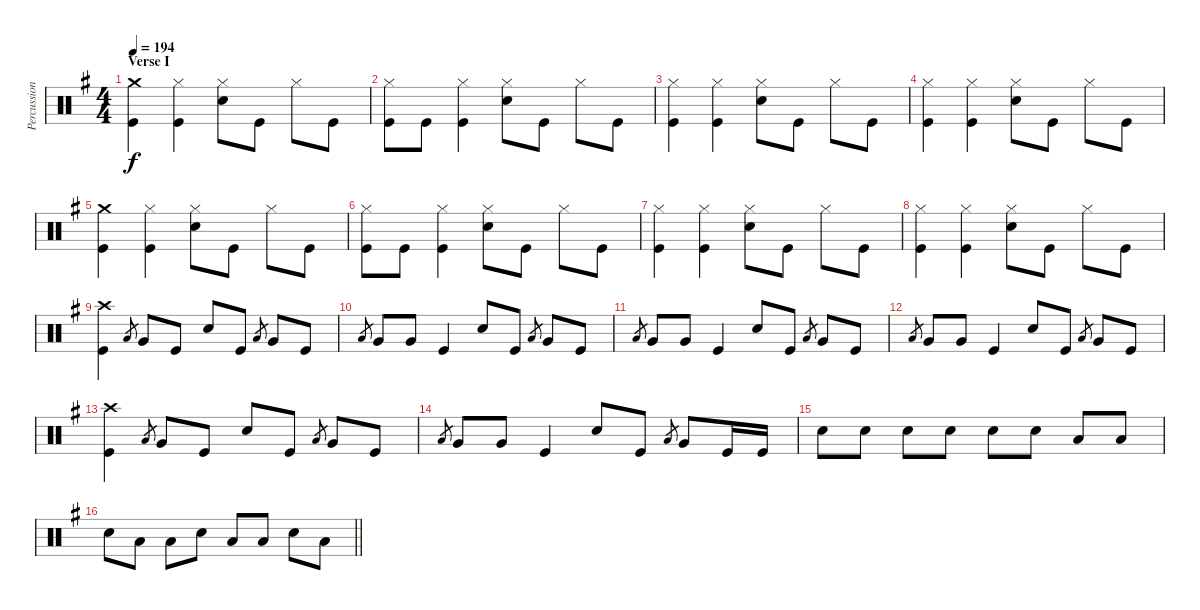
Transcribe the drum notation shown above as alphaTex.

\track ("Percussion" "Percussion") {instrument percussion}
\staff {score}
\articulation defaults
\ts (4 4)
\section ("" "Verse I")
\tempo 194
\clef neutral
\ks g
("Crash medium (hit)" "Kick (hit)").4{dy f} ("Hi-Hat (closed)" "Kick (hit)").4 ("Hi-Hat (closed)" "Electric Snare (hit)").8 "Kick (hit)".8 "Hi-Hat (closed)".8 "Kick (hit)".8 |
("Hi-Hat (closed)" "Kick (hit)").8 "Kick (hit)".8 ("Hi-Hat (closed)" "Kick (hit)").4 ("Hi-Hat (closed)" "Electric Snare (hit)").8 "Kick (hit)".8 "Hi-Hat (closed)".8 "Kick (hit)".8 |
("Hi-Hat (closed)" "Kick (hit)").4 ("Hi-Hat (closed)" "Kick (hit)").4 ("Hi-Hat (closed)" "Electric Snare (hit)").8 "Kick (hit)".8 "Hi-Hat (closed)".8 "Kick (hit)".8 |
("Hi-Hat (closed)" "Kick (hit)").4 ("Hi-Hat (closed)" "Kick (hit)").4 ("Hi-Hat (closed)" "Electric Snare (hit)").8 "Kick (hit)".8 "Hi-Hat (closed)".8 "Kick (hit)".8 |
("Crash medium (hit)" "Kick (hit)").4 ("Hi-Hat (closed)" "Kick (hit)").4 ("Hi-Hat (closed)" "Electric Snare (hit)").8 "Kick (hit)".8 "Hi-Hat (closed)".8 "Kick (hit)".8 |
("Hi-Hat (closed)" "Kick (hit)").8 "Kick (hit)".8 ("Hi-Hat (closed)" "Kick (hit)").4 ("Hi-Hat (closed)" "Electric Snare (hit)").8 "Kick (hit)".8 "Hi-Hat (closed)".8 "Kick (hit)".8 |
("Hi-Hat (closed)" "Kick (hit)").4 ("Hi-Hat (closed)" "Kick (hit)").4 ("Hi-Hat (closed)" "Electric Snare (hit)").8 "Kick (hit)".8 "Hi-Hat (closed)".8 "Kick (hit)".8 |
("Hi-Hat (closed)" "Kick (hit)").4 ("Hi-Hat (closed)" "Kick (hit)").4 ("Hi-Hat (closed)" "Electric Snare (hit)").8 "Kick (hit)".8 "Hi-Hat (closed)".8 "Kick (hit)".8 |
("Crash high (hit)" "Kick (hit)").4 "Low Tom (hit)".8{gr} "Very Low Tom (hit)".8 "Kick (hit)".8 "Electric Snare (hit)".8 "Kick (hit)".8 "Low Tom (hit)".8{gr} "Very Low Tom (hit)".8 "Kick (hit)".8 |
"Low Tom (hit)".8{gr} "Very Low Tom (hit)".8 "Very Low Tom (hit)".8 "Kick (hit)".4 "Electric Snare (hit)".8 "Kick (hit)".8 "Low Tom (hit)".8{gr} "Very Low Tom (hit)".8 "Kick (hit)".8 |
"Low Tom (hit)".8{gr} "Very Low Tom (hit)".8 "Very Low Tom (hit)".8 "Kick (hit)".4 "Electric Snare (hit)".8 "Kick (hit)".8 "Low Tom (hit)".8{gr} "Very Low Tom (hit)".8 "Kick (hit)".8 |
"Low Tom (hit)".8{gr} "Very Low Tom (hit)".8 "Very Low Tom (hit)".8 "Kick (hit)".4 "Electric Snare (hit)".8 "Kick (hit)".8 "Low Tom (hit)".8{gr} "Very Low Tom (hit)".8 "Kick (hit)".8 |
("Crash high (hit)" "Kick (hit)").4 "Low Tom (hit)".8{gr} "Very Low Tom (hit)".8 "Kick (hit)".8 "Electric Snare (hit)".8 "Kick (hit)".8 "Low Tom (hit)".8{gr} "Very Low Tom (hit)".8 "Kick (hit)".8 |
"Low Tom (hit)".8{gr} "Very Low Tom (hit)".8 "Very Low Tom (hit)".8 "Kick (hit)".4 "Electric Snare (hit)".8 "Kick (hit)".8 "Low Tom (hit)".8{gr} "Very Low Tom (hit)".8 "Kick (hit)".16 "Kick (hit)".16 |
"Electric Snare (hit)".8 "Electric Snare (hit)".8 "Electric Snare (hit)".8 "Electric Snare (hit)".8 "Electric Snare (hit)".8 "Electric Snare (hit)".8 "Low Tom (hit)".8 "Low Tom (hit)".8 |
\barLineRight lightlight "Electric Snare (hit)".8 "Low Tom (hit)".8 "Low Tom (hit)".8 "Electric Snare (hit)".8 "Low Tom (hit)".8 "Low Tom (hit)".8 "Electric Snare (hit)".8 "Low Tom (hit)".8
